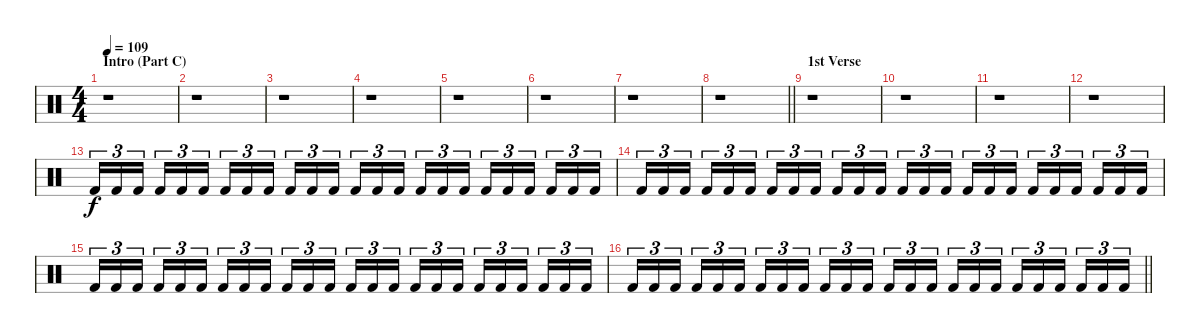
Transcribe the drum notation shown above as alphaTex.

\track "" {instrument percussion}
\staff {score}
\articulation defaults
\ts (4 4)
\section ("" "Intro (Part C)")
\tempo 109
\clef neutral
\ks c
r.1{dy f} |
r.1 |
r.1 |
r.1 |
r.1 |
r.1 |
r.1 |
\barLineRight lightlight
r.1 |
\section ("" "1st Verse")
r.1 |
r.1 |
r.1 |
r.1 |
"Kick (hit) 2".16{tu (3 2)} "Kick (hit) 2".16{tu (3 2)} "Kick (hit) 2".16{tu (3 2) beam splitsecondary} "Kick (hit) 2".16{tu (3 2)} "Kick (hit) 2".16{tu (3 2)} "Kick (hit) 2".16{tu (3 2)} "Kick (hit) 2".16{tu (3 2)} "Kick (hit) 2".16{tu (3 2)} "Kick (hit) 2".16{tu (3 2) beam splitsecondary} "Kick (hit) 2".16{tu (3 2)} "Kick (hit) 2".16{tu (3 2)} "Kick (hit) 2".16{tu (3 2)} "Kick (hit) 2".16{tu (3 2)} "Kick (hit) 2".16{tu (3 2)} "Kick (hit) 2".16{tu (3 2) beam splitsecondary} "Kick (hit) 2".16{tu (3 2)} "Kick (hit) 2".16{tu (3 2)} "Kick (hit) 2".16{tu (3 2)} "Kick (hit) 2".16{tu (3 2)} "Kick (hit) 2".16{tu (3 2)} "Kick (hit) 2".16{tu (3 2) beam splitsecondary} "Kick (hit) 2".16{tu (3 2)} "Kick (hit) 2".16{tu (3 2)} "Kick (hit) 2".16{tu (3 2)} |
"Kick (hit) 2".16{tu (3 2)} "Kick (hit) 2".16{tu (3 2)} "Kick (hit) 2".16{tu (3 2) beam splitsecondary} "Kick (hit) 2".16{tu (3 2)} "Kick (hit) 2".16{tu (3 2)} "Kick (hit) 2".16{tu (3 2)} "Kick (hit) 2".16{tu (3 2)} "Kick (hit) 2".16{tu (3 2)} "Kick (hit) 2".16{tu (3 2) beam splitsecondary} "Kick (hit) 2".16{tu (3 2)} "Kick (hit) 2".16{tu (3 2)} "Kick (hit) 2".16{tu (3 2)} "Kick (hit) 2".16{tu (3 2)} "Kick (hit) 2".16{tu (3 2)} "Kick (hit) 2".16{tu (3 2) beam splitsecondary} "Kick (hit) 2".16{tu (3 2)} "Kick (hit) 2".16{tu (3 2)} "Kick (hit) 2".16{tu (3 2)} "Kick (hit) 2".16{tu (3 2)} "Kick (hit) 2".16{tu (3 2)} "Kick (hit) 2".16{tu (3 2) beam splitsecondary} "Kick (hit) 2".16{tu (3 2)} "Kick (hit) 2".16{tu (3 2)} "Kick (hit) 2".16{tu (3 2)} |
"Kick (hit) 2".16{tu (3 2)} "Kick (hit) 2".16{tu (3 2)} "Kick (hit) 2".16{tu (3 2) beam splitsecondary} "Kick (hit) 2".16{tu (3 2)} "Kick (hit) 2".16{tu (3 2)} "Kick (hit) 2".16{tu (3 2)} "Kick (hit) 2".16{tu (3 2)} "Kick (hit) 2".16{tu (3 2)} "Kick (hit) 2".16{tu (3 2) beam splitsecondary} "Kick (hit) 2".16{tu (3 2)} "Kick (hit) 2".16{tu (3 2)} "Kick (hit) 2".16{tu (3 2)} "Kick (hit) 2".16{tu (3 2)} "Kick (hit) 2".16{tu (3 2)} "Kick (hit) 2".16{tu (3 2) beam splitsecondary} "Kick (hit) 2".16{tu (3 2)} "Kick (hit) 2".16{tu (3 2)} "Kick (hit) 2".16{tu (3 2)} "Kick (hit) 2".16{tu (3 2)} "Kick (hit) 2".16{tu (3 2)} "Kick (hit) 2".16{tu (3 2) beam splitsecondary} "Kick (hit) 2".16{tu (3 2)} "Kick (hit) 2".16{tu (3 2)} "Kick (hit) 2".16{tu (3 2)} |
\barLineRight lightlight "Kick (hit) 2".16{tu (3 2)} "Kick (hit) 2".16{tu (3 2)} "Kick (hit) 2".16{tu (3 2) beam splitsecondary} "Kick (hit) 2".16{tu (3 2)} "Kick (hit) 2".16{tu (3 2)} "Kick (hit) 2".16{tu (3 2)} "Kick (hit) 2".16{tu (3 2)} "Kick (hit) 2".16{tu (3 2)} "Kick (hit) 2".16{tu (3 2) beam splitsecondary} "Kick (hit) 2".16{tu (3 2)} "Kick (hit) 2".16{tu (3 2)} "Kick (hit) 2".16{tu (3 2)} "Kick (hit) 2".16{tu (3 2)} "Kick (hit) 2".16{tu (3 2)} "Kick (hit) 2".16{tu (3 2) beam splitsecondary} "Kick (hit) 2".16{tu (3 2)} "Kick (hit) 2".16{tu (3 2)} "Kick (hit) 2".16{tu (3 2)} "Kick (hit) 2".16{tu (3 2)} "Kick (hit) 2".16{tu (3 2)} "Kick (hit) 2".16{tu (3 2) beam splitsecondary} "Kick (hit) 2".16{tu (3 2)} "Kick (hit) 2".16{tu (3 2)} "Kick (hit) 2".16{tu (3 2)}
